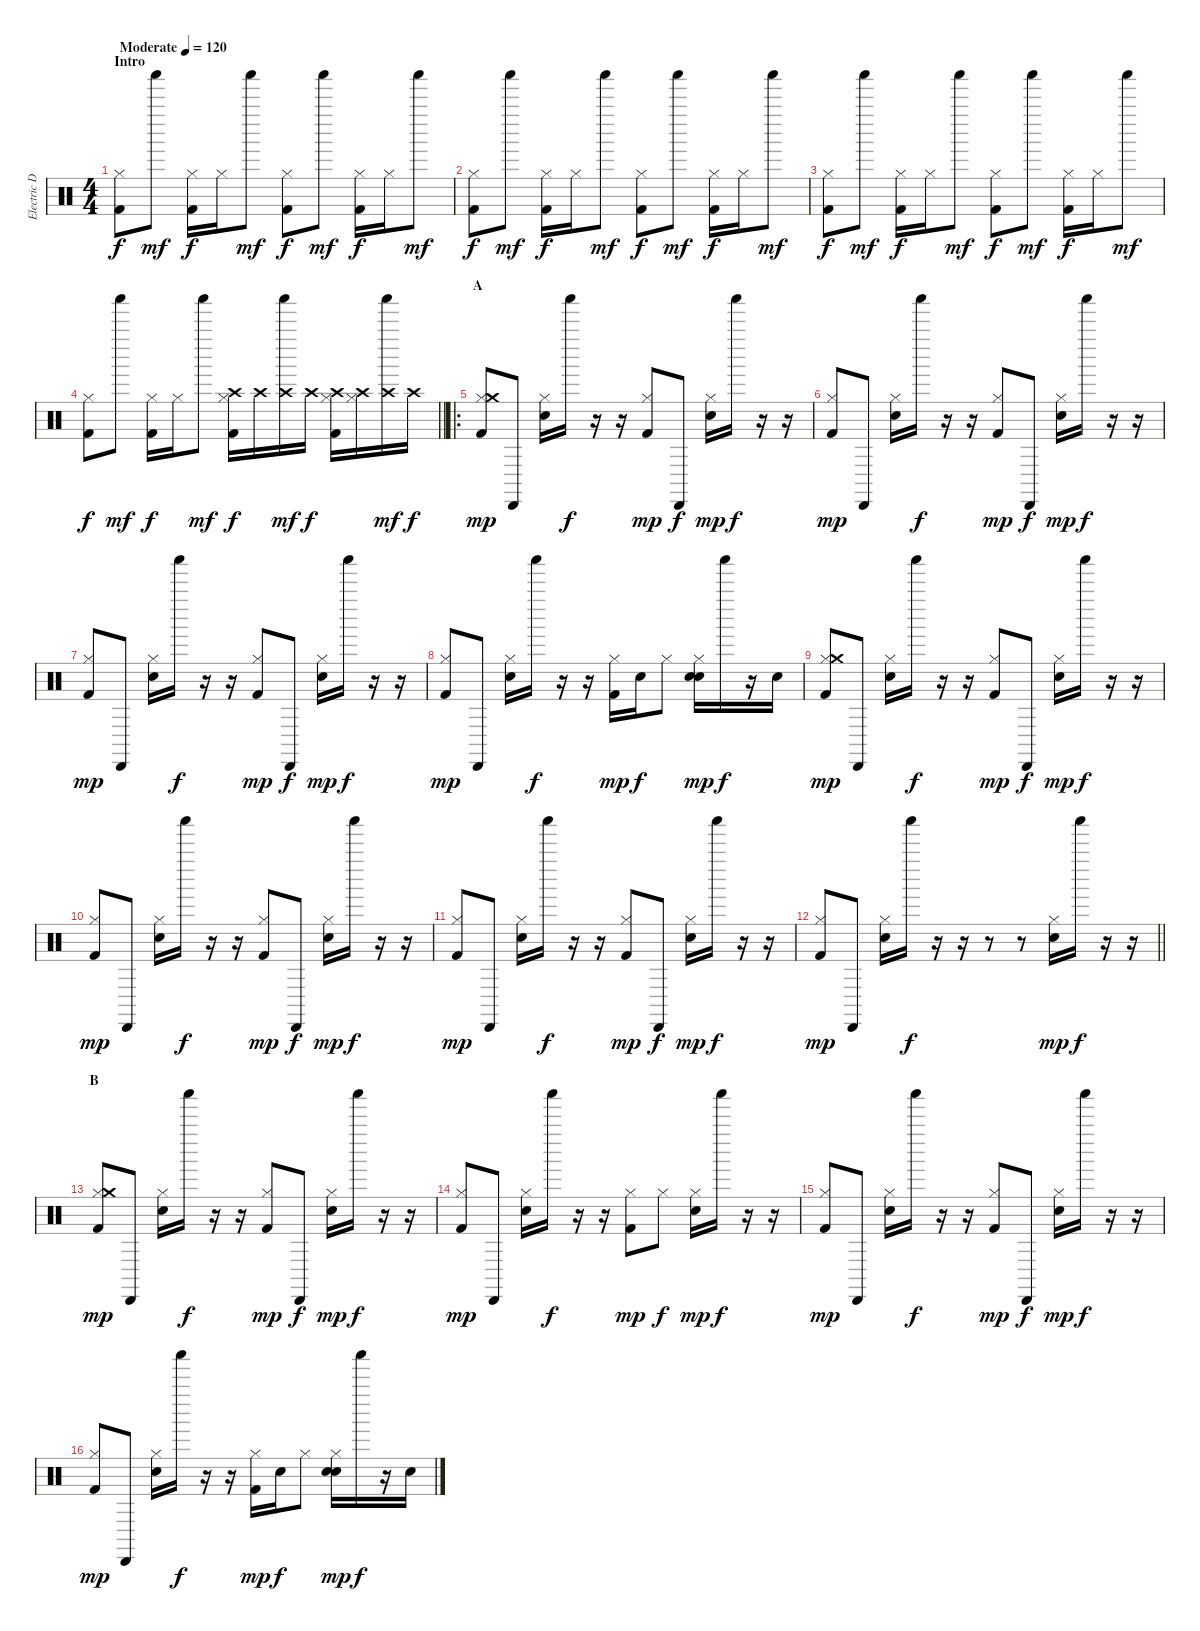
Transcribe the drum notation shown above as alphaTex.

\track ("Electric Drum" "Electric D") {instrument percussion}
\staff {score}
\articulation defaults
\ts (4 4)
\section ("" "Intro")
\tempo (120 "Moderate")
\clef neutral
\ks c
("Hi-Hat (closed)" "Kick (hit) 2").8{dy f} "Shaker (hit)".8{dy mf} ("Hi-Hat (closed)" "Kick (hit) 2").16{dy f} "Hi-Hat (closed)".16 "Shaker (hit)".8{dy mf} ("Hi-Hat (closed)" "Kick (hit) 2").8{dy f} "Shaker (hit)".8{dy mf} ("Hi-Hat (closed)" "Kick (hit) 2").16{dy f} "Hi-Hat (closed)".16 "Shaker (hit)".8{dy mf} |
("Hi-Hat (closed)" "Kick (hit) 2").8{dy f} "Shaker (hit)".8{dy mf} ("Hi-Hat (closed)" "Kick (hit) 2").16{dy f} "Hi-Hat (closed)".16 "Shaker (hit)".8{dy mf} ("Hi-Hat (closed)" "Kick (hit) 2").8{dy f} "Shaker (hit)".8{dy mf} ("Hi-Hat (closed)" "Kick (hit) 2").16{dy f} "Hi-Hat (closed)".16 "Shaker (hit)".8{dy mf} |
("Hi-Hat (closed)" "Kick (hit) 2").8{dy f} "Shaker (hit)".8{dy mf} ("Hi-Hat (closed)" "Kick (hit) 2").16{dy f} "Hi-Hat (closed)".16 "Shaker (hit)".8{dy mf} ("Hi-Hat (closed)" "Kick (hit) 2").8{dy f} "Shaker (hit)".8{dy mf} ("Hi-Hat (closed)" "Kick (hit) 2").16{dy f} "Hi-Hat (closed)".16 "Shaker (hit)".8{dy mf} |
\barLineRight lightlight
("Hi-Hat (closed)" "Kick (hit) 2").8{dy f} "Shaker (hit)".8{dy mf} ("Hi-Hat (closed)" "Kick (hit) 2").16{dy f} "Hi-Hat (closed)".16 "Shaker (hit)".8{dy mf} ("Hi-Hat (closed)" "Kick (hit) 2" "Crash high (hit)").16{dy f} "Crash high (hit)".16 ("Shaker (hit)" "Crash high (hit)").16{dy mf} "Crash high (hit)".16{dy f} ("Hi-Hat (closed)" "Kick (hit) 2" "Crash high (hit)").16 ("Hi-Hat (closed)" "Crash high (hit)").16 ("Shaker (hit)" "Crash high (hit)").16{dy mf} "Crash high (hit)".16{dy f} |
\ro
\section ("" "A")
("Hi-Hat (closed)" "Crash medium (hit)" "Kick (hit) 2").8{dy mp} "Cabasa (hit)".8 ("Hi-Hat (closed)" "Snare (hit) 2").16 "Shaker (hit)".16{dy f} r.16 r.16 ("Hi-Hat (closed)" "Kick (hit) 2").8{dy mp} "Cabasa (hit)".8{dy f} ("Hi-Hat (closed)" "Snare (hit) 2").16{dy mp} "Shaker (hit)".16{dy f} r.16 r.16 |
("Hi-Hat (closed)" "Kick (hit) 2").8{dy mp} "Cabasa (hit)".8 ("Hi-Hat (closed)" "Snare (hit) 2").16 "Shaker (hit)".16{dy f} r.16 r.16 ("Hi-Hat (closed)" "Kick (hit) 2").8{dy mp} "Cabasa (hit)".8{dy f} ("Hi-Hat (closed)" "Snare (hit) 2").16{dy mp} "Shaker (hit)".16{dy f} r.16 r.16 |
("Hi-Hat (closed)" "Kick (hit) 2").8{dy mp} "Cabasa (hit)".8 ("Hi-Hat (closed)" "Snare (hit) 2").16 "Shaker (hit)".16{dy f} r.16 r.16 ("Hi-Hat (closed)" "Kick (hit) 2").8{dy mp} "Cabasa (hit)".8{dy f} ("Hi-Hat (closed)" "Snare (hit) 2").16{dy mp} "Shaker (hit)".16{dy f} r.16 r.16 |
("Hi-Hat (closed)" "Kick (hit) 2").8{dy mp} "Cabasa (hit)".8 ("Hi-Hat (closed)" "Snare (hit) 2").16 "Shaker (hit)".16{dy f} r.16 r.16 ("Hi-Hat (closed)" "Kick (hit) 2").16{dy mp} "Hand Clap (hit)".16{dy f} "Hi-Hat (closed)".8 ("Hi-Hat (closed)" "Snare (hit) 2" "Hand Clap (hit)").16{dy mp} "Shaker (hit)".16{dy f} r.16 "Hand Clap (hit)".16 |
("Hi-Hat (closed)" "Crash medium (hit)" "Kick (hit) 2").8{dy mp} "Cabasa (hit)".8 ("Hi-Hat (closed)" "Snare (hit) 2").16 "Shaker (hit)".16{dy f} r.16 r.16 ("Hi-Hat (closed)" "Kick (hit) 2").8{dy mp} "Cabasa (hit)".8{dy f} ("Hi-Hat (closed)" "Snare (hit) 2").16{dy mp} "Shaker (hit)".16{dy f} r.16 r.16 |
("Hi-Hat (closed)" "Kick (hit) 2").8{dy mp} "Cabasa (hit)".8 ("Hi-Hat (closed)" "Snare (hit) 2").16 "Shaker (hit)".16{dy f} r.16 r.16 ("Hi-Hat (closed)" "Kick (hit) 2").8{dy mp} "Cabasa (hit)".8{dy f} ("Hi-Hat (closed)" "Snare (hit) 2").16{dy mp} "Shaker (hit)".16{dy f} r.16 r.16 |
("Hi-Hat (closed)" "Kick (hit) 2").8{dy mp} "Cabasa (hit)".8 ("Hi-Hat (closed)" "Snare (hit) 2").16 "Shaker (hit)".16{dy f} r.16 r.16 ("Hi-Hat (closed)" "Kick (hit) 2").8{dy mp} "Cabasa (hit)".8{dy f} ("Hi-Hat (closed)" "Snare (hit) 2").16{dy mp} "Shaker (hit)".16{dy f} r.16 r.16 |
\barLineRight lightlight
("Hi-Hat (closed)" "Kick (hit) 2").8{dy mp} "Cabasa (hit)".8 ("Hi-Hat (closed)" "Snare (hit) 2").16 "Shaker (hit)".16{dy f} r.16 r.16 r.8 r.8 ("Hi-Hat (closed)" "Snare (hit) 2").16{dy mp} "Shaker (hit)".16{dy f} r.16 r.16 |
\section ("" "B")
("Hi-Hat (closed)" "Crash medium (hit)" "Kick (hit) 2").8{dy mp} "Cabasa (hit)".8 ("Hi-Hat (closed)" "Snare (hit) 2").16 "Shaker (hit)".16{dy f} r.16 r.16 ("Hi-Hat (closed)" "Kick (hit) 2").8{dy mp} "Cabasa (hit)".8{dy f} ("Hi-Hat (closed)" "Snare (hit) 2").16{dy mp} "Shaker (hit)".16{dy f} r.16 r.16 |
("Hi-Hat (closed)" "Kick (hit) 2").8{dy mp} "Cabasa (hit)".8 ("Hi-Hat (closed)" "Snare (hit) 2").16 "Shaker (hit)".16{dy f} r.16 r.16 ("Hi-Hat (closed)" "Kick (hit) 2").8{dy mp} "Hi-Hat (closed)".8{dy f} ("Hi-Hat (closed)" "Snare (hit) 2").16{dy mp} "Shaker (hit)".16{dy f} r.16 r.16 |
("Hi-Hat (closed)" "Kick (hit) 2").8{dy mp} "Cabasa (hit)".8 ("Hi-Hat (closed)" "Snare (hit) 2").16 "Shaker (hit)".16{dy f} r.16 r.16 ("Hi-Hat (closed)" "Kick (hit) 2").8{dy mp} "Cabasa (hit)".8{dy f} ("Hi-Hat (closed)" "Snare (hit) 2").16{dy mp} "Shaker (hit)".16{dy f} r.16 r.16 |
("Hi-Hat (closed)" "Kick (hit) 2").8{dy mp} "Cabasa (hit)".8 ("Hi-Hat (closed)" "Snare (hit) 2").16 "Shaker (hit)".16{dy f} r.16 r.16 ("Hi-Hat (closed)" "Kick (hit) 2").16{dy mp} "Hand Clap (hit)".16{dy f} "Hi-Hat (closed)".8 ("Hi-Hat (closed)" "Snare (hit) 2" "Hand Clap (hit)").16{dy mp} "Shaker (hit)".16{dy f} r.16 "Hand Clap (hit)".16
